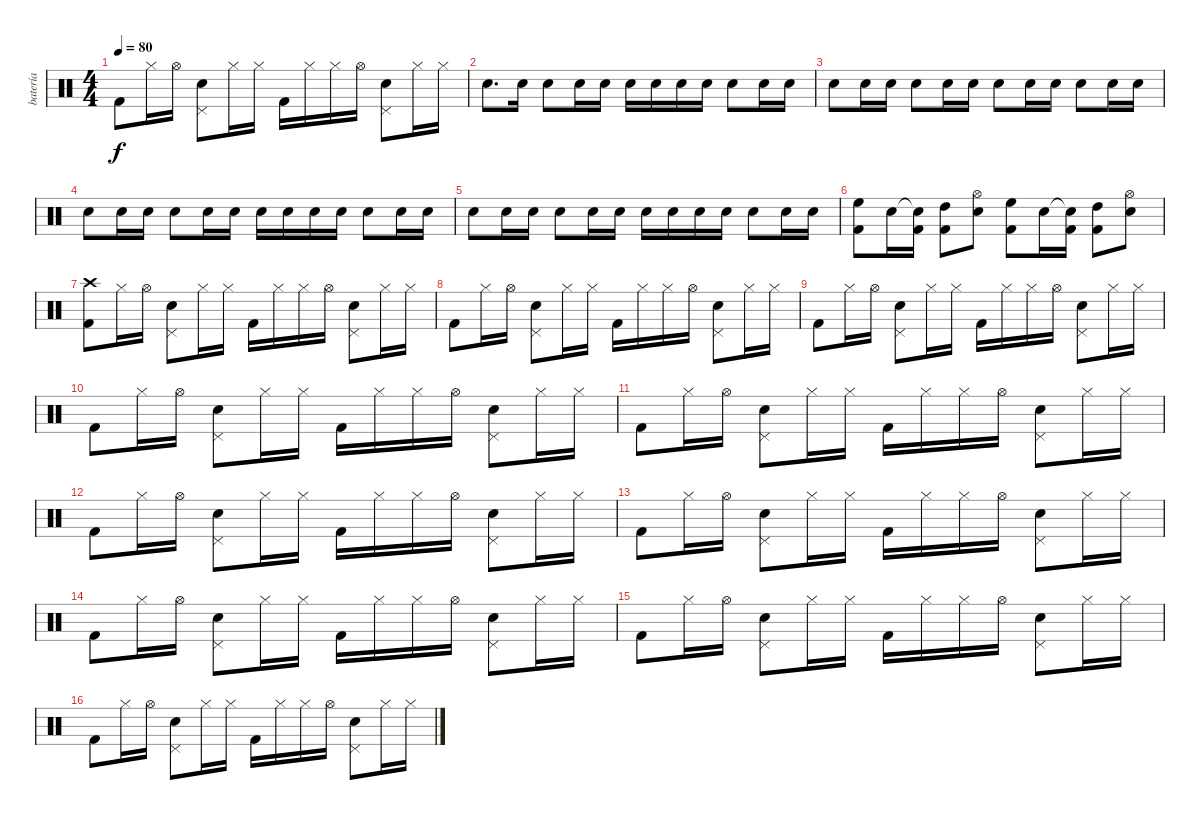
\track ("batería" "batería") {instrument percussion}
\staff {score}
\articulation defaults
\ts (4 4)
\tempo 80
\clef neutral
\ks c "Kick (hit) 2".8{dy f} "Hi-Hat (closed)".16 "Hi-Hat (open)".16
("Snare (hit) 2" "Pedal Hi-Hat (hit)").8 "Hi-Hat (closed)".16 "Hi-Hat (closed)".16 "Kick (hit) 2".16 "Hi-Hat (closed)".16 "Hi-Hat (closed)".16 "Hi-Hat (open)".16 ("Snare (hit) 2" "Pedal Hi-Hat (hit)").8 "Hi-Hat (closed)".16 "Hi-Hat (closed)".16 |
"Snare (hit) 2".8{d} "Snare (hit) 2".16 "Snare (hit) 2".8 "Snare (hit) 2".16 "Snare (hit) 2".16 "Snare (hit) 2".16 "Snare (hit) 2".16 "Snare (hit) 2".16 "Snare (hit) 2".16 "Snare (hit) 2".8 "Snare (hit) 2".16 "Snare (hit) 2".16 |
"Snare (hit) 2".8 "Snare (hit) 2".16 "Snare (hit) 2".16 "Snare (hit) 2".8 "Snare (hit) 2".16 "Snare (hit) 2".16 "Snare (hit) 2".8 "Snare (hit) 2".16 "Snare (hit) 2".16 "Snare (hit) 2".8 "Snare (hit) 2".16 "Snare (hit) 2".16 |
"Snare (hit) 2".8 "Snare (hit) 2".16 "Snare (hit) 2".16 "Snare (hit) 2".8 "Snare (hit) 2".16 "Snare (hit) 2".16 "Snare (hit) 2".16 "Snare (hit) 2".16 "Snare (hit) 2".16 "Snare (hit) 2".16 "Snare (hit) 2".8 "Snare (hit) 2".16 "Snare (hit) 2".16 |
"Snare (hit) 2".8 "Snare (hit) 2".16 "Snare (hit) 2".16 "Snare (hit) 2".8 "Snare (hit) 2".16 "Snare (hit) 2".16 "Snare (hit) 2".16 "Snare (hit) 2".16 "Snare (hit) 2".16 "Snare (hit) 2".16 "Snare (hit) 2".8 "Snare (hit) 2".16 "Snare (hit) 2".16 |
("High Floor Tom (hit)" "Kick (hit) 2").8 "Snare (hit) 2".16 ("Snare (hit) 2"{t} "Kick (hit) 2").16 ("High Tom (hit)" "Kick (hit) 2").8 ("Snare (hit) 2" "Hi-Hat (open)").8 ("High Floor Tom (hit)" "Kick (hit) 2").8 "Snare (hit) 2".16 ("Snare (hit) 2"{t} "Kick (hit) 2").16 ("High Tom (hit)" "Kick (hit) 2").8 ("Snare (hit) 2" "Hi-Hat (open)").8 |
("Kick (hit) 2" "Crash high (hit)").8 "Hi-Hat (closed)".16 "Hi-Hat (open)".16 ("Snare (hit) 2" "Pedal Hi-Hat (hit)").8 "Hi-Hat (closed)".16 "Hi-Hat (closed)".16 "Kick (hit) 2".16 "Hi-Hat (closed)".16 "Hi-Hat (closed)".16 "Hi-Hat (open)".16 ("Snare (hit) 2" "Pedal Hi-Hat (hit)").8 "Hi-Hat (closed)".16 "Hi-Hat (closed)".16 |
"Kick (hit) 2".8 "Hi-Hat (closed)".16 "Hi-Hat (open)".16 ("Snare (hit) 2" "Pedal Hi-Hat (hit)").8 "Hi-Hat (closed)".16 "Hi-Hat (closed)".16 "Kick (hit) 2".16 "Hi-Hat (closed)".16 "Hi-Hat (closed)".16 "Hi-Hat (open)".16 ("Snare (hit) 2" "Pedal Hi-Hat (hit)").8 "Hi-Hat (closed)".16 "Hi-Hat (closed)".16 |
"Kick (hit) 2".8 "Hi-Hat (closed)".16 "Hi-Hat (open)".16 ("Snare (hit) 2" "Pedal Hi-Hat (hit)").8 "Hi-Hat (closed)".16 "Hi-Hat (closed)".16 "Kick (hit) 2".16 "Hi-Hat (closed)".16 "Hi-Hat (closed)".16 "Hi-Hat (open)".16 ("Snare (hit) 2" "Pedal Hi-Hat (hit)").8 "Hi-Hat (closed)".16 "Hi-Hat (closed)".16 |
"Kick (hit) 2".8 "Hi-Hat (closed)".16 "Hi-Hat (open)".16 ("Snare (hit) 2" "Pedal Hi-Hat (hit)").8 "Hi-Hat (closed)".16 "Hi-Hat (closed)".16 "Kick (hit) 2".16 "Hi-Hat (closed)".16 "Hi-Hat (closed)".16 "Hi-Hat (open)".16 ("Snare (hit) 2" "Pedal Hi-Hat (hit)").8 "Hi-Hat (closed)".16 "Hi-Hat (closed)".16 |
"Kick (hit) 2".8 "Hi-Hat (closed)".16 "Hi-Hat (open)".16 ("Snare (hit) 2" "Pedal Hi-Hat (hit)").8 "Hi-Hat (closed)".16 "Hi-Hat (closed)".16 "Kick (hit) 2".16 "Hi-Hat (closed)".16 "Hi-Hat (closed)".16 "Hi-Hat (open)".16 ("Snare (hit) 2" "Pedal Hi-Hat (hit)").8 "Hi-Hat (closed)".16 "Hi-Hat (closed)".16 |
"Kick (hit) 2".8 "Hi-Hat (closed)".16 "Hi-Hat (open)".16 ("Snare (hit) 2" "Pedal Hi-Hat (hit)").8 "Hi-Hat (closed)".16 "Hi-Hat (closed)".16 "Kick (hit) 2".16 "Hi-Hat (closed)".16 "Hi-Hat (closed)".16 "Hi-Hat (open)".16 ("Snare (hit) 2" "Pedal Hi-Hat (hit)").8 "Hi-Hat (closed)".16 "Hi-Hat (closed)".16 |
"Kick (hit) 2".8 "Hi-Hat (closed)".16 "Hi-Hat (open)".16 ("Snare (hit) 2" "Pedal Hi-Hat (hit)").8 "Hi-Hat (closed)".16 "Hi-Hat (closed)".16 "Kick (hit) 2".16 "Hi-Hat (closed)".16 "Hi-Hat (closed)".16 "Hi-Hat (open)".16 ("Snare (hit) 2" "Pedal Hi-Hat (hit)").8 "Hi-Hat (closed)".16 "Hi-Hat (closed)".16 |
"Kick (hit) 2".8 "Hi-Hat (closed)".16 "Hi-Hat (open)".16 ("Snare (hit) 2" "Pedal Hi-Hat (hit)").8 "Hi-Hat (closed)".16 "Hi-Hat (closed)".16 "Kick (hit) 2".16 "Hi-Hat (closed)".16 "Hi-Hat (closed)".16 "Hi-Hat (open)".16 ("Snare (hit) 2" "Pedal Hi-Hat (hit)").8 "Hi-Hat (closed)".16 "Hi-Hat (closed)".16 |
"Kick (hit) 2".8 "Hi-Hat (closed)".16 "Hi-Hat (open)".16 ("Snare (hit) 2" "Pedal Hi-Hat (hit)").8 "Hi-Hat (closed)".16 "Hi-Hat (closed)".16 "Kick (hit) 2".16 "Hi-Hat (closed)".16 "Hi-Hat (closed)".16 "Hi-Hat (open)".16 ("Snare (hit) 2" "Pedal Hi-Hat (hit)").8 "Hi-Hat (closed)".16 "Hi-Hat (closed)".16 |
"Kick (hit) 2".8 "Hi-Hat (closed)".16 "Hi-Hat (open)".16 ("Snare (hit) 2" "Pedal Hi-Hat (hit)").8 "Hi-Hat (closed)".16 "Hi-Hat (closed)".16 "Kick (hit) 2".16 "Hi-Hat (closed)".16 "Hi-Hat (closed)".16 "Hi-Hat (open)".16 ("Snare (hit) 2" "Pedal Hi-Hat (hit)").8 "Hi-Hat (closed)".16 "Hi-Hat (closed)".16
